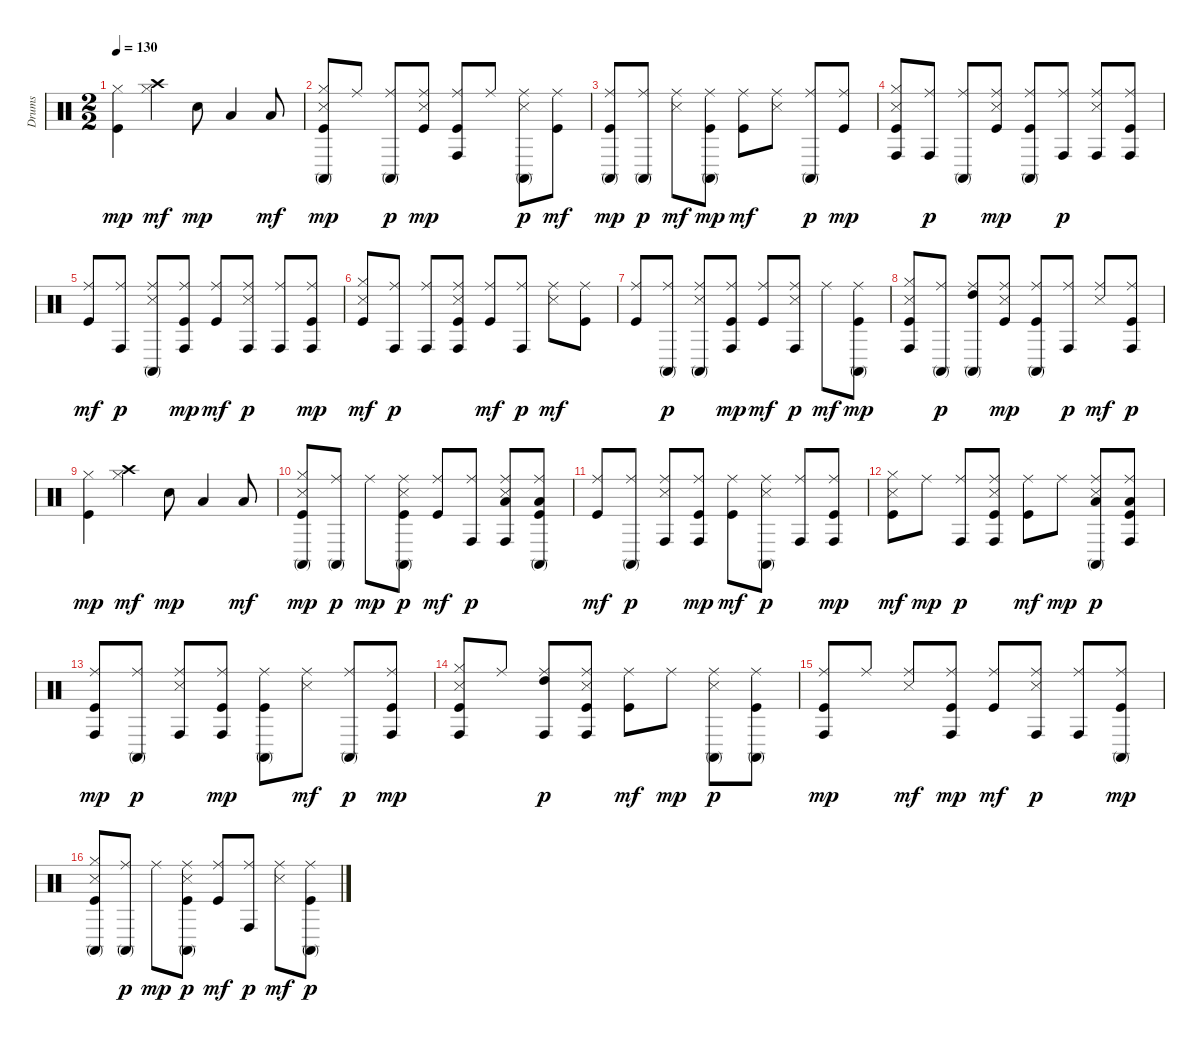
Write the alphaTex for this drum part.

\track ("Drums" "Drums") {instrument percussion}
\staff {score}
\articulation defaults
\ts (2 2)
\tempo 130
\clef neutral
\ks c
("Kick (hit)" "Hi-Hat (closed)").4{dy mp} ("Hi-Hat (closed)" "Crash high (hit)").4{dy mf} "Snare (hit) 2".8{dy mp} "Low Tom (hit)".4 "Low Tom (hit)".8{dy mf} |
("Kick (hit)" "Snare (side stick) 3" "Hi-Hat (closed)" "Conga high (mute)").8{dy mp} "Ride (middle)".8 ("Ride (middle)" "Conga high (mute)").8{dy p} ("Kick (hit)" "Snare (side stick) 3" "Ride (middle)").8{dy mp} ("Kick (hit)" "Ride (middle)" "Conga high (hit)").8 "Ride (middle)".8 ("Snare (side stick) 3" "Ride (middle)" "Conga high (mute)").8{dy p} ("Kick (hit)" "Ride (middle)").8{dy mf} |
("Kick (hit)" "Ride (middle)" "Conga high (mute)").8{dy mp} ("Ride (middle)" "Conga high (mute)").8{dy p} ("Snare (side stick) 3" "Ride (middle)").8{dy mf} ("Kick (hit)" "Ride (middle)" "Conga high (mute)").8{dy mp} ("Kick (hit)" "Ride (middle)").8{dy mf} ("Snare (side stick) 3" "Ride (middle)").8 ("Ride (middle)" "Conga high (mute)").8{dy p} ("Kick (hit)" "Ride (middle)").8{dy mp} |
("Kick (hit)" "Snare (side stick) 3" "Hi-Hat (closed)" "Conga high (hit)").8 ("Ride (middle)" "Conga high (hit)").8{dy p} ("Ride (middle)" "Conga high (mute)").8 ("Kick (hit)" "Snare (side stick) 3" "Ride (middle)").8{dy mp} ("Kick (hit)" "Ride (middle)" "Conga high (mute)").8 ("Ride (middle)" "Conga high (hit)").8{dy p} ("Snare (side stick) 3" "Ride (middle)" "Conga high (hit)").8 ("Kick (hit)" "Ride (middle)" "Conga high (hit)").8 |
("Kick (hit)" "Ride (middle)").8{dy mf} ("Ride (middle)" "Conga high (hit)").8{dy p} ("Snare (side stick) 3" "Ride (middle)" "Conga high (mute)").8 ("Kick (hit)" "Ride (middle)" "Conga high (hit)").8{dy mp} ("Kick (hit)" "Ride (middle)").8{dy mf} ("Snare (side stick) 3" "Ride (middle)" "Conga high (hit)").8{dy p} ("Ride (middle)" "Conga high (hit)").8 ("Kick (hit)" "Ride (middle)" "Conga high (hit)").8{dy mp} |
("Kick (hit)" "Snare (side stick) 3" "Hi-Hat (closed)").8{dy mf} ("Ride (middle)" "Conga high (hit)").8{dy p} ("Ride (middle)" "Conga high (hit)").8 ("Kick (hit)" "Snare (side stick) 3" "Ride (middle)" "Conga high (hit)").8 ("Kick (hit)" "Ride (middle)").8{dy mf} ("Ride (middle)" "Conga high (hit)").8{dy p} ("Snare (side stick) 3" "Ride (middle)").8{dy mf} ("Kick (hit)" "Ride (middle)").8 |
("Kick (hit)" "Ride (middle)").8 ("Ride (middle)" "Conga high (mute)").8{dy p} ("Snare (side stick) 3" "Ride (middle)" "Conga high (mute)").8 ("Kick (hit)" "Ride (middle)" "Conga high (hit)").8{dy mp} ("Kick (hit)" "Ride (middle)").8{dy mf} ("Snare (side stick) 3" "Ride (middle)" "Conga high (hit)").8{dy p} "Ride (middle)".8{dy mf} ("Kick (hit)" "Ride (middle)" "Conga high (mute)").8{dy mp} |
("Kick (hit)" "Snare (side stick) 3" "Hi-Hat (closed)" "Conga high (hit)").8 ("Ride (middle)" "Conga high (mute)").8{dy p} ("High Tom (hit)" "Ride (middle)" "Conga high (mute)").8 ("Kick (hit)" "Snare (side stick) 3" "Ride (middle)").8{dy mp} ("Kick (hit)" "Ride (middle)" "Conga high (mute)").8 ("Ride (middle)" "Conga high (hit)").8{dy p} ("Snare (side stick) 3" "Ride (middle)").8{dy mf} ("Kick (hit)" "Ride (middle)" "Conga high (hit)").8{dy p} |
("Kick (hit)" "Hi-Hat (closed)").4{dy mp} ("Hi-Hat (closed)" "Crash high (hit)").4{dy mf} "Snare (hit) 2".8{dy mp} "Low Tom (hit)".4 "Low Tom (hit)".8{dy mf} |
("Kick (hit)" "Snare (side stick) 3" "Hi-Hat (closed)" "Conga high (mute)").8{dy mp} ("Ride (middle)" "Conga high (mute)").8{dy p} "Ride (middle)".8{dy mp} ("Kick (hit)" "Snare (side stick) 3" "Ride (middle)" "Conga high (mute)").8{dy p} ("Kick (hit)" "Ride (middle)").8{dy mf} ("Ride (middle)" "Conga high (hit)").8{dy p} ("Snare (side stick) 3" "Low Tom (hit)" "Ride (middle)" "Conga high (hit)").8 ("Kick (hit)" "Low Tom (hit)" "Ride (middle)" "Conga high (mute)").8 |
("Kick (hit)" "Ride (middle)").8{dy mf} ("Ride (middle)" "Conga high (mute)").8{dy p} ("Snare (side stick) 3" "Ride (middle)" "Conga high (hit)").8 ("Kick (hit)" "Ride (middle)" "Conga high (hit)").8{dy mp} ("Kick (hit)" "Ride (middle)").8{dy mf} ("Snare (side stick) 3" "Ride (middle)" "Conga high (mute)").8{dy p} ("Ride (middle)" "Conga high (hit)").8 ("Kick (hit)" "Ride (middle)" "Conga high (hit)").8{dy mp} |
("Kick (hit)" "Snare (side stick) 3" "Hi-Hat (closed)").8{dy mf} "Ride (middle)".8{dy mp} ("Ride (middle)" "Conga high (hit)").8{dy p} ("Kick (hit)" "Snare (side stick) 3" "Ride (middle)" "Conga high (hit)").8 ("Kick (hit)" "Ride (middle)").8{dy mf} "Ride (middle)".8{dy mp} ("Snare (side stick) 3" "Low Tom (hit)" "Ride (middle)" "Conga high (mute)").8{dy p} ("Kick (hit)" "Low Tom (hit)" "Ride (middle)" "Conga high (hit)").8 |
("Kick (hit)" "Ride (middle)" "Conga high (hit)").8{dy mp} ("Ride (middle)" "Conga high (mute)").8{dy p} ("Snare (side stick) 3" "Ride (middle)" "Conga high (hit)").8 ("Kick (hit)" "Ride (middle)" "Conga high (hit)").8{dy mp} ("Kick (hit)" "Ride (middle)" "Conga high (mute)").8 ("Snare (side stick) 3" "Ride (middle)").8{dy mf} ("Ride (middle)" "Conga high (mute)").8{dy p} ("Kick (hit)" "Ride (middle)" "Conga high (hit)").8{dy mp} |
("Kick (hit)" "Snare (side stick) 3" "Hi-Hat (closed)" "Conga high (hit)").8 "Ride (middle)".8 ("High Tom (hit)" "Ride (middle)" "Conga high (hit)").8{dy p} ("Kick (hit)" "Snare (side stick) 3" "Ride (middle)" "Conga high (hit)").8 ("Kick (hit)" "Ride (middle)").8{dy mf} "Ride (middle)".8{dy mp} ("Snare (side stick) 3" "Ride (middle)" "Conga high (mute)").8{dy p} ("Kick (hit)" "Ride (middle)" "Conga high (mute)").8 |
("Kick (hit)" "Ride (middle)" "Conga high (hit)").8{dy mp} "Ride (middle)".8 ("Snare (side stick) 3" "Ride (middle)").8{dy mf} ("Kick (hit)" "Ride (middle)" "Conga high (hit)").8{dy mp} ("Kick (hit)" "Ride (middle)").8{dy mf} ("Snare (side stick) 3" "Ride (middle)" "Conga high (hit)").8{dy p} ("Ride (middle)" "Conga high (hit)").8 ("Kick (hit)" "Ride (middle)" "Conga high (mute)").8{dy mp} |
("Kick (hit)" "Snare (side stick) 3" "Hi-Hat (closed)" "Conga high (mute)").8 ("Ride (middle)" "Conga high (mute)").8{dy p} "Ride (middle)".8{dy mp} ("Kick (hit)" "Snare (side stick) 3" "Ride (middle)" "Conga high (mute)").8{dy p} ("Kick (hit)" "Ride (middle)").8{dy mf} ("Ride (middle)" "Conga high (hit)").8{dy p} ("Snare (side stick) 3" "Ride (middle)").8{dy mf} ("Kick (hit)" "Ride (middle)" "Conga high (mute)").8{dy p}
